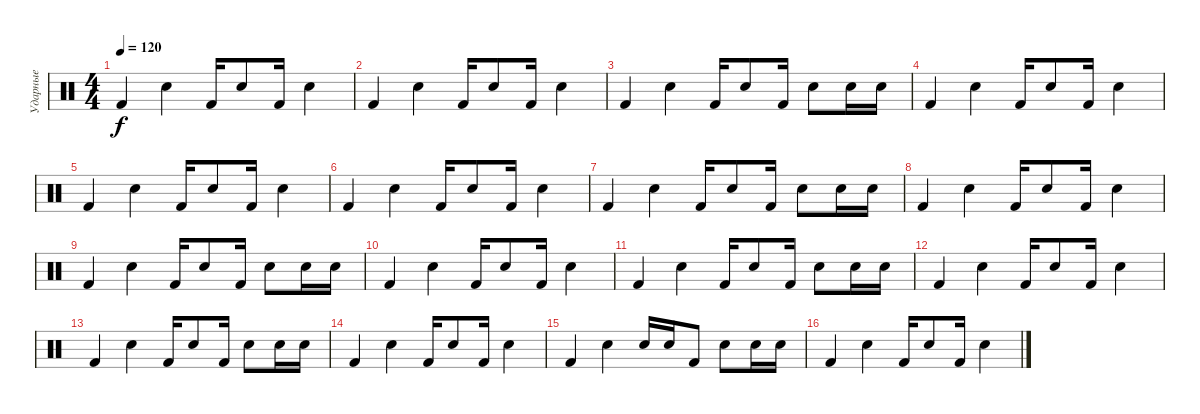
\track ("Ударные" "Ударные") {instrument percussion}
\staff {score}
\articulation defaults
\ts (4 4)
\tempo 120
\clef neutral
\ks c "Kick (hit) 2".4{dy f} "Snare (hit) 2".4 "Kick (hit) 2".16 "Snare (hit) 2".8 "Kick (hit) 2".16 "Snare (hit) 2".4
|
"Kick (hit) 2".4 "Snare (hit) 2".4 "Kick (hit) 2".16 "Snare (hit) 2".8 "Kick (hit) 2".16 "Snare (hit) 2".4 |
"Kick (hit) 2".4 "Snare (hit) 2".4 "Kick (hit) 2".16 "Snare (hit) 2".8 "Kick (hit) 2".16 "Snare (hit) 2".8 "Snare (hit) 2".16 "Snare (hit) 2".16 |
"Kick (hit) 2".4 "Snare (hit) 2".4 "Kick (hit) 2".16 "Snare (hit) 2".8 "Kick (hit) 2".16 "Snare (hit) 2".4 |
"Kick (hit) 2".4 "Snare (hit) 2".4 "Kick (hit) 2".16 "Snare (hit) 2".8 "Kick (hit) 2".16 "Snare (hit) 2".4 |
"Kick (hit) 2".4 "Snare (hit) 2".4 "Kick (hit) 2".16 "Snare (hit) 2".8 "Kick (hit) 2".16 "Snare (hit) 2".4 |
"Kick (hit) 2".4 "Snare (hit) 2".4 "Kick (hit) 2".16 "Snare (hit) 2".8 "Kick (hit) 2".16 "Snare (hit) 2".8 "Snare (hit) 2".16 "Snare (hit) 2".16 |
"Kick (hit) 2".4 "Snare (hit) 2".4 "Kick (hit) 2".16 "Snare (hit) 2".8 "Kick (hit) 2".16 "Snare (hit) 2".4 |
"Kick (hit) 2".4 "Snare (hit) 2".4 "Kick (hit) 2".16 "Snare (hit) 2".8 "Kick (hit) 2".16 "Snare (hit) 2".8 "Snare (hit) 2".16 "Snare (hit) 2".16 |
"Kick (hit) 2".4 "Snare (hit) 2".4 "Kick (hit) 2".16 "Snare (hit) 2".8 "Kick (hit) 2".16 "Snare (hit) 2".4 |
"Kick (hit) 2".4 "Snare (hit) 2".4 "Kick (hit) 2".16 "Snare (hit) 2".8 "Kick (hit) 2".16 "Snare (hit) 2".8 "Snare (hit) 2".16 "Snare (hit) 2".16 |
"Kick (hit) 2".4 "Snare (hit) 2".4 "Kick (hit) 2".16 "Snare (hit) 2".8 "Kick (hit) 2".16 "Snare (hit) 2".4 |
"Kick (hit) 2".4 "Snare (hit) 2".4 "Kick (hit) 2".16 "Snare (hit) 2".8 "Kick (hit) 2".16 "Snare (hit) 2".8 "Snare (hit) 2".16 "Snare (hit) 2".16 |
"Kick (hit) 2".4 "Snare (hit) 2".4 "Kick (hit) 2".16 "Snare (hit) 2".8 "Kick (hit) 2".16 "Snare (hit) 2".4 |
"Kick (hit) 2".4 "Snare (hit) 2".4 "Snare (hit) 2".16 "Snare (hit) 2".16 "Kick (hit) 2".8 "Snare (hit) 2".8 "Snare (hit) 2".16 "Snare (hit) 2".16 |
"Kick (hit) 2".4 "Snare (hit) 2".4 "Kick (hit) 2".16 "Snare (hit) 2".8 "Kick (hit) 2".16 "Snare (hit) 2".4
